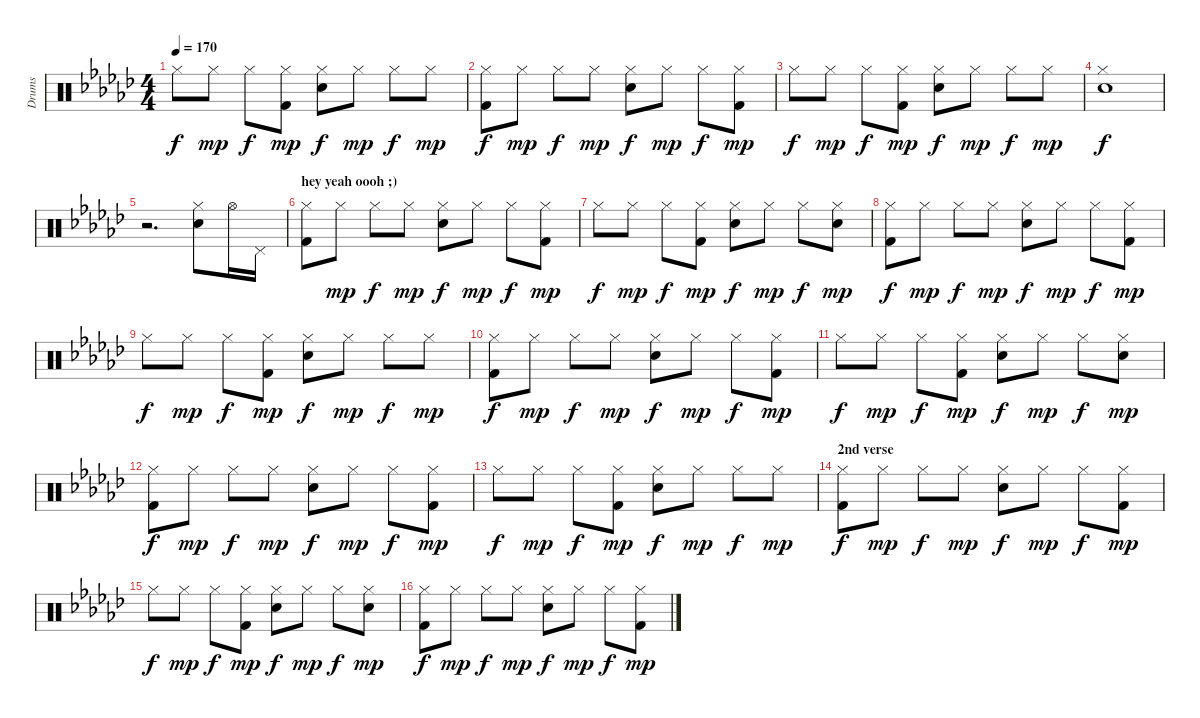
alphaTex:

\track ("Drums" "Drums") {instrument percussion}
\staff {score}
\articulation defaults
\ts (4 4)
\tempo 170
\clef neutral
\ks ebminor "Hi-Hat (closed)".8{dy f} "Hi-Hat (closed)".8{dy mp} "Hi-Hat (closed)".8{dy f}
("Hi-Hat (closed)" "Kick (hit) 2").8{dy mp} ("Hi-Hat (closed)" "Snare (hit) 2").8{dy f} "Hi-Hat (closed)".8{dy mp} "Hi-Hat (closed)".8{dy f} "Hi-Hat (closed)".8{dy mp} |
("Hi-Hat (closed)" "Kick (hit) 2").8{dy f} "Hi-Hat (closed)".8{dy mp} "Hi-Hat (closed)".8{dy f} "Hi-Hat (closed)".8{dy mp} ("Hi-Hat (closed)" "Snare (hit) 2").8{dy f} "Hi-Hat (closed)".8{dy mp} "Hi-Hat (closed)".8{dy f} ("Hi-Hat (closed)" "Kick (hit) 2").8{dy mp} |
"Hi-Hat (closed)".8{dy f} "Hi-Hat (closed)".8{dy mp} "Hi-Hat (closed)".8{dy f} ("Hi-Hat (closed)" "Kick (hit) 2").8{dy mp} ("Hi-Hat (closed)" "Snare (hit) 2").8{dy f} "Hi-Hat (closed)".8{dy mp} "Hi-Hat (closed)".8{dy f} "Hi-Hat (closed)".8{dy mp} |
("Hi-Hat (closed)" "Snare (hit) 2").1{dy f} |
r.2{d} ("Hi-Hat (closed)" "Electric Snare (hit)").8 "Hi-Hat (open)".16 "Pedal Hi-Hat (hit)".16 |
\section ("" "hey yeah oooh ;)")
("Hi-Hat (closed)" "Kick (hit) 2").8 "Hi-Hat (closed)".8{dy mp} "Hi-Hat (closed)".8{dy f} "Hi-Hat (closed)".8{dy mp} ("Hi-Hat (closed)" "Snare (hit) 2").8{dy f} "Hi-Hat (closed)".8{dy mp} "Hi-Hat (closed)".8{dy f} ("Hi-Hat (closed)" "Kick (hit) 2").8{dy mp} |
"Hi-Hat (closed)".8{dy f} "Hi-Hat (closed)".8{dy mp} "Hi-Hat (closed)".8{dy f} ("Hi-Hat (closed)" "Kick (hit) 2").8{dy mp} ("Hi-Hat (closed)" "Snare (hit) 2").8{dy f} "Hi-Hat (closed)".8{dy mp} "Hi-Hat (closed)".8{dy f} ("Hi-Hat (closed)" "Snare (hit) 2").8{dy mp} |
("Hi-Hat (closed)" "Kick (hit) 2").8{dy f} "Hi-Hat (closed)".8{dy mp} "Hi-Hat (closed)".8{dy f} "Hi-Hat (closed)".8{dy mp} ("Hi-Hat (closed)" "Snare (hit) 2").8{dy f} "Hi-Hat (closed)".8{dy mp} "Hi-Hat (closed)".8{dy f} ("Hi-Hat (closed)" "Kick (hit) 2").8{dy mp} |
"Hi-Hat (closed)".8{dy f} "Hi-Hat (closed)".8{dy mp} "Hi-Hat (closed)".8{dy f} ("Hi-Hat (closed)" "Kick (hit) 2").8{dy mp} ("Hi-Hat (closed)" "Snare (hit) 2").8{dy f} "Hi-Hat (closed)".8{dy mp} "Hi-Hat (closed)".8{dy f} "Hi-Hat (closed)".8{dy mp} |
("Hi-Hat (closed)" "Kick (hit) 2").8{dy f} "Hi-Hat (closed)".8{dy mp} "Hi-Hat (closed)".8{dy f} "Hi-Hat (closed)".8{dy mp} ("Hi-Hat (closed)" "Snare (hit) 2").8{dy f} "Hi-Hat (closed)".8{dy mp} "Hi-Hat (closed)".8{dy f} ("Hi-Hat (closed)" "Kick (hit) 2").8{dy mp} |
"Hi-Hat (closed)".8{dy f} "Hi-Hat (closed)".8{dy mp} "Hi-Hat (closed)".8{dy f} ("Hi-Hat (closed)" "Kick (hit) 2").8{dy mp} ("Hi-Hat (closed)" "Snare (hit) 2").8{dy f} "Hi-Hat (closed)".8{dy mp} "Hi-Hat (closed)".8{dy f} ("Hi-Hat (closed)" "Snare (hit) 2").8{dy mp} |
("Hi-Hat (closed)" "Kick (hit) 2").8{dy f} "Hi-Hat (closed)".8{dy mp} "Hi-Hat (closed)".8{dy f} "Hi-Hat (closed)".8{dy mp} ("Hi-Hat (closed)" "Snare (hit) 2").8{dy f} "Hi-Hat (closed)".8{dy mp} "Hi-Hat (closed)".8{dy f} ("Hi-Hat (closed)" "Kick (hit) 2").8{dy mp} |
"Hi-Hat (closed)".8{dy f} "Hi-Hat (closed)".8{dy mp} "Hi-Hat (closed)".8{dy f} ("Hi-Hat (closed)" "Kick (hit) 2").8{dy mp} ("Hi-Hat (closed)" "Snare (hit) 2").8{dy f} "Hi-Hat (closed)".8{dy mp} "Hi-Hat (closed)".8{dy f} "Hi-Hat (closed)".8{dy mp} |
\section ("" "2nd verse")
("Hi-Hat (closed)" "Kick (hit) 2").8{dy f} "Hi-Hat (closed)".8{dy mp} "Hi-Hat (closed)".8{dy f} "Hi-Hat (closed)".8{dy mp} ("Hi-Hat (closed)" "Snare (hit) 2").8{dy f} "Hi-Hat (closed)".8{dy mp} "Hi-Hat (closed)".8{dy f} ("Hi-Hat (closed)" "Kick (hit) 2").8{dy mp} |
"Hi-Hat (closed)".8{dy f} "Hi-Hat (closed)".8{dy mp} "Hi-Hat (closed)".8{dy f} ("Hi-Hat (closed)" "Kick (hit) 2").8{dy mp} ("Hi-Hat (closed)" "Snare (hit) 2").8{dy f} "Hi-Hat (closed)".8{dy mp} "Hi-Hat (closed)".8{dy f} ("Hi-Hat (closed)" "Snare (hit) 2").8{dy mp} |
("Hi-Hat (closed)" "Kick (hit) 2").8{dy f} "Hi-Hat (closed)".8{dy mp} "Hi-Hat (closed)".8{dy f} "Hi-Hat (closed)".8{dy mp} ("Hi-Hat (closed)" "Snare (hit) 2").8{dy f} "Hi-Hat (closed)".8{dy mp} "Hi-Hat (closed)".8{dy f} ("Hi-Hat (closed)" "Kick (hit) 2").8{dy mp}
